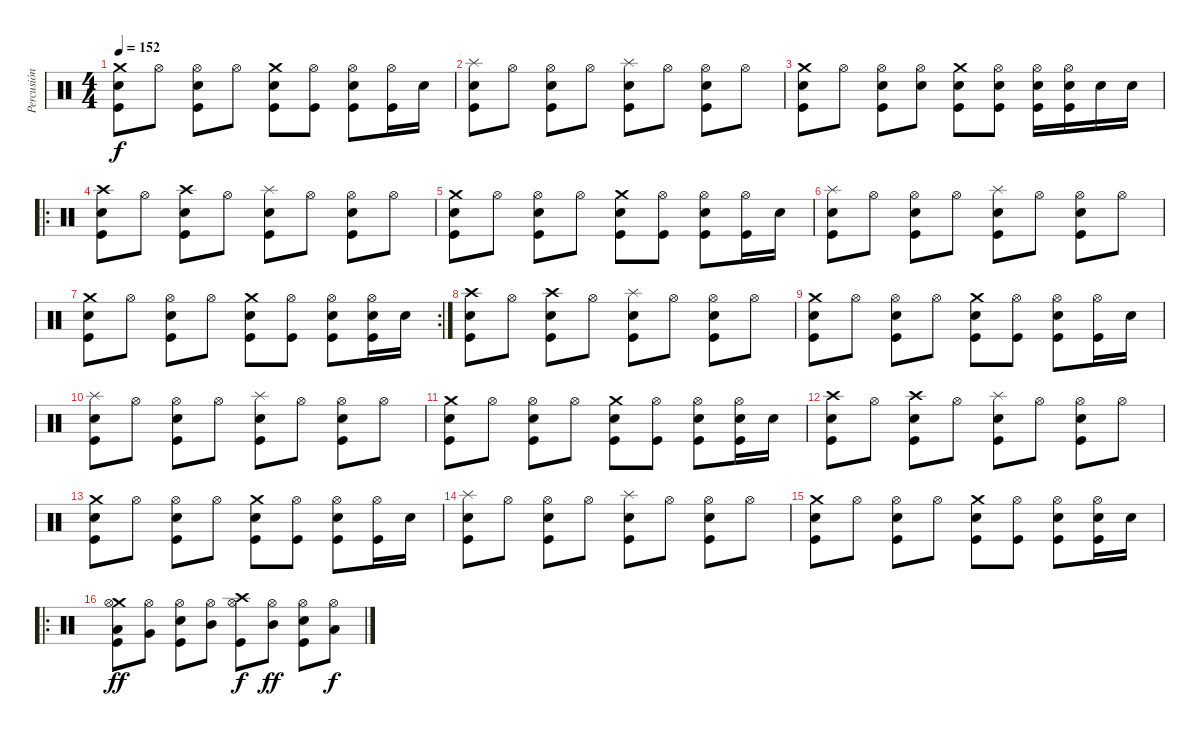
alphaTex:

\track ("Percusión" "Percusión") {instrument percussion}
\staff {score}
\articulation defaults
\ts (4 4)
\tempo 152
\clef neutral
\ks c
("Crash medium (hit)" "Electric Snare (hit)" "Kick (hit)").8{dy f} "Hi-Hat (open)".8 ("Hi-Hat (open)" "Electric Snare (hit)" "Kick (hit)").8 "Hi-Hat (open)".8 ("Crash medium (hit)" "Electric Snare (hit)" "Kick (hit)").8 ("Hi-Hat (open)" "Kick (hit)").8 ("Hi-Hat (open)" "Electric Snare (hit)" "Kick (hit)").8 ("Hi-Hat (open)" "Kick (hit)").16 "Electric Snare (hit)".16 |
("Splash (hit)" "Electric Snare (hit)" "Kick (hit)").8 "Hi-Hat (open)".8 ("Hi-Hat (open)" "Electric Snare (hit)" "Kick (hit)").8 "Hi-Hat (open)".8 ("Splash (hit)" "Electric Snare (hit)" "Kick (hit)").8 "Hi-Hat (open)".8 ("Hi-Hat (open)" "Electric Snare (hit)" "Kick (hit)").8 "Hi-Hat (open)".8 |
("Crash medium (hit)" "Electric Snare (hit)" "Kick (hit)").8 "Hi-Hat (open)".8 ("Hi-Hat (open)" "Electric Snare (hit)" "Kick (hit)").8 ("Hi-Hat (open)" "Electric Snare (hit)").8 ("Crash medium (hit)" "Electric Snare (hit)" "Kick (hit)").8 ("Hi-Hat (open)" "Electric Snare (hit)" "Kick (hit)").8 ("Hi-Hat (open)" "Electric Snare (hit)" "Kick (hit)").16 ("Hi-Hat (open)" "Electric Snare (hit)" "Kick (hit)").16 "Electric Snare (hit)".16 "Electric Snare (hit)".16 |
\ro
("Crash high (hit)" "Electric Snare (hit)" "Kick (hit)").8 "Hi-Hat (open)".8 ("Crash high (hit)" "Electric Snare (hit)" "Kick (hit)").8 "Hi-Hat (open)".8 ("Splash (hit)" "Electric Snare (hit)" "Kick (hit)").8 "Hi-Hat (open)".8 ("Hi-Hat (open)" "Electric Snare (hit)" "Kick (hit)").8 "Hi-Hat (open)".8 |
("Crash medium (hit)" "Electric Snare (hit)" "Kick (hit)").8 "Hi-Hat (open)".8 ("Hi-Hat (open)" "Electric Snare (hit)" "Kick (hit)").8 "Hi-Hat (open)".8 ("Crash medium (hit)" "Electric Snare (hit)" "Kick (hit)").8 ("Hi-Hat (open)" "Kick (hit)").8 ("Hi-Hat (open)" "Electric Snare (hit)" "Kick (hit)").8 ("Hi-Hat (open)" "Kick (hit)").16 "Electric Snare (hit)".16 |
("Splash (hit)" "Electric Snare (hit)" "Kick (hit)").8 "Hi-Hat (open)".8 ("Hi-Hat (open)" "Electric Snare (hit)" "Kick (hit)").8 "Hi-Hat (open)".8 ("Splash (hit)" "Electric Snare (hit)" "Kick (hit)").8 "Hi-Hat (open)".8 ("Hi-Hat (open)" "Electric Snare (hit)" "Kick (hit)").8 "Hi-Hat (open)".8 |
\rc 2
("Crash medium (hit)" "Electric Snare (hit)" "Kick (hit)").8 "Hi-Hat (open)".8 ("Hi-Hat (open)" "Electric Snare (hit)" "Kick (hit)").8 "Hi-Hat (open)".8 ("Crash medium (hit)" "Electric Snare (hit)" "Kick (hit)").8 ("Hi-Hat (open)" "Kick (hit)").8 ("Hi-Hat (open)" "Electric Snare (hit)" "Kick (hit)").8 ("Hi-Hat (open)" "Electric Snare (hit)" "Kick (hit)").16 "Electric Snare (hit)".16 |
("Crash high (hit)" "Electric Snare (hit)" "Kick (hit)").8 "Hi-Hat (open)".8 ("Crash high (hit)" "Electric Snare (hit)" "Kick (hit)").8 "Hi-Hat (open)".8 ("Splash (hit)" "Electric Snare (hit)" "Kick (hit)").8 "Hi-Hat (open)".8 ("Hi-Hat (open)" "Electric Snare (hit)" "Kick (hit)").8 "Hi-Hat (open)".8 |
("Crash medium (hit)" "Electric Snare (hit)" "Kick (hit)").8 "Hi-Hat (open)".8 ("Hi-Hat (open)" "Electric Snare (hit)" "Kick (hit)").8 "Hi-Hat (open)".8 ("Crash medium (hit)" "Electric Snare (hit)" "Kick (hit)").8 ("Hi-Hat (open)" "Kick (hit)").8 ("Hi-Hat (open)" "Electric Snare (hit)" "Kick (hit)").8 ("Hi-Hat (open)" "Kick (hit)").16 "Electric Snare (hit)".16 |
("Splash (hit)" "Electric Snare (hit)" "Kick (hit)").8 "Hi-Hat (open)".8 ("Hi-Hat (open)" "Electric Snare (hit)" "Kick (hit)").8 "Hi-Hat (open)".8 ("Splash (hit)" "Electric Snare (hit)" "Kick (hit)").8 "Hi-Hat (open)".8 ("Hi-Hat (open)" "Electric Snare (hit)" "Kick (hit)").8 "Hi-Hat (open)".8 |
("Crash medium (hit)" "Electric Snare (hit)" "Kick (hit)").8 "Hi-Hat (open)".8 ("Hi-Hat (open)" "Electric Snare (hit)" "Kick (hit)").8 "Hi-Hat (open)".8 ("Crash medium (hit)" "Electric Snare (hit)" "Kick (hit)").8 ("Hi-Hat (open)" "Kick (hit)").8 ("Hi-Hat (open)" "Electric Snare (hit)" "Kick (hit)").8 ("Hi-Hat (open)" "Electric Snare (hit)" "Kick (hit)").16 "Electric Snare (hit)".16 |
("Crash high (hit)" "Electric Snare (hit)" "Kick (hit)").8 "Hi-Hat (open)".8 ("Crash high (hit)" "Electric Snare (hit)" "Kick (hit)").8 "Hi-Hat (open)".8 ("Splash (hit)" "Electric Snare (hit)" "Kick (hit)").8 "Hi-Hat (open)".8 ("Hi-Hat (open)" "Electric Snare (hit)" "Kick (hit)").8 "Hi-Hat (open)".8 |
("Crash medium (hit)" "Electric Snare (hit)" "Kick (hit)").8 "Hi-Hat (open)".8 ("Hi-Hat (open)" "Electric Snare (hit)" "Kick (hit)").8 "Hi-Hat (open)".8 ("Crash medium (hit)" "Electric Snare (hit)" "Kick (hit)").8 ("Hi-Hat (open)" "Kick (hit)").8 ("Hi-Hat (open)" "Electric Snare (hit)" "Kick (hit)").8 ("Hi-Hat (open)" "Kick (hit)").16 "Electric Snare (hit)".16 |
("Splash (hit)" "Electric Snare (hit)" "Kick (hit)").8 "Hi-Hat (open)".8 ("Hi-Hat (open)" "Electric Snare (hit)" "Kick (hit)").8 "Hi-Hat (open)".8 ("Splash (hit)" "Electric Snare (hit)" "Kick (hit)").8 "Hi-Hat (open)".8 ("Hi-Hat (open)" "Electric Snare (hit)" "Kick (hit)").8 "Hi-Hat (open)".8 |
("Crash medium (hit)" "Electric Snare (hit)" "Kick (hit)").8 "Hi-Hat (open)".8 ("Hi-Hat (open)" "Electric Snare (hit)" "Kick (hit)").8 "Hi-Hat (open)".8 ("Crash medium (hit)" "Electric Snare (hit)" "Kick (hit)").8 ("Hi-Hat (open)" "Kick (hit)").8 ("Hi-Hat (open)" "Electric Snare (hit)" "Kick (hit)").8 ("Hi-Hat (open)" "Electric Snare (hit)" "Kick (hit)").16 "Electric Snare (hit)".16 |
\ro
("Low Floor Tom (hit)" "Crash medium (hit)" "Kick (hit)" "Hi-Hat (open)").8{dy ff} ("Very Low Tom (hit)" "Hi-Hat (open)").8 ("Electric Snare (hit)" "Kick (hit)" "Hi-Hat (open)").8 ("Mid Tom (hit)" "Hi-Hat (open)").8 ("Crash high (hit)" "Kick (hit)" "Hi-Hat (open)").8{dy f} ("Mid Tom (hit)" "Hi-Hat (open)").8{dy ff} ("Electric Snare (hit)" "Kick (hit)" "Hi-Hat (open)").8 ("Low Tom (hit)" "Hi-Hat (open)").8{dy f}
